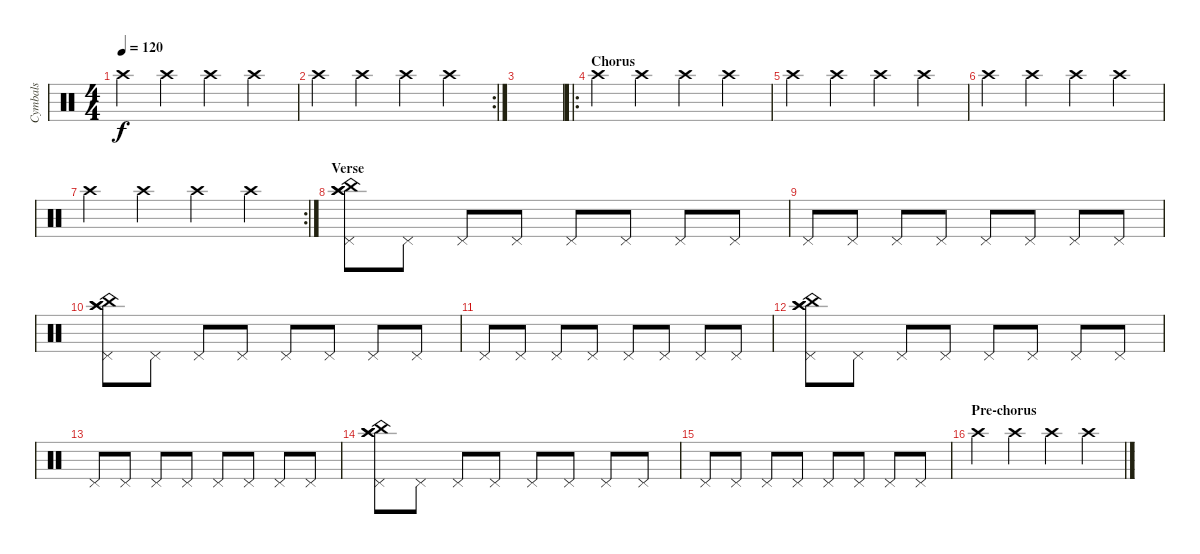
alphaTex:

\track ("Cymbals" "Cymbals") {instrument percussion}
\staff {score}
\articulation defaults
\ts (4 4)
\tempo 120
\clef neutral
\ks c "Crash high (hit)".4{dy f} "Crash high (hit)".4 "Crash high (hit)".4 "Crash high (hit)".4
|
\rc 2 "Crash high (hit)".4 "Crash high (hit)".4 "Crash high (hit)".4 "Crash high (hit)".4
|
|
\ro
\section ("" "Chorus")
"Crash high (hit)".4 "Crash high (hit)".4 "Crash high (hit)".4 "Crash high (hit)".4 |
"Crash high (hit)".4 "Crash high (hit)".4 "Crash high (hit)".4 "Crash high (hit)".4 |
"Crash high (hit)".4 "Crash high (hit)".4 "Crash high (hit)".4 "Crash high (hit)".4 |
\rc 2 "Crash high (hit)".4 "Crash high (hit)".4 "Crash high (hit)".4 "Crash high (hit)".4
|
\section ("" "Verse")
("Crash high (hit)" "Crash high (hit)" "Pedal Hi-Hat (hit)" "China (hit)").8 "Pedal Hi-Hat (hit)".8 "Pedal Hi-Hat (hit)".8 "Pedal Hi-Hat (hit)".8 "Pedal Hi-Hat (hit)".8 "Pedal Hi-Hat (hit)".8 "Pedal Hi-Hat (hit)".8 "Pedal Hi-Hat (hit)".8 |
"Pedal Hi-Hat (hit)".8 "Pedal Hi-Hat (hit)".8 "Pedal Hi-Hat (hit)".8 "Pedal Hi-Hat (hit)".8 "Pedal Hi-Hat (hit)".8 "Pedal Hi-Hat (hit)".8 "Pedal Hi-Hat (hit)".8 "Pedal Hi-Hat (hit)".8 |
("Crash high (hit)" "Crash high (hit)" "Pedal Hi-Hat (hit)" "China (hit)").8 "Pedal Hi-Hat (hit)".8 "Pedal Hi-Hat (hit)".8 "Pedal Hi-Hat (hit)".8 "Pedal Hi-Hat (hit)".8 "Pedal Hi-Hat (hit)".8 "Pedal Hi-Hat (hit)".8 "Pedal Hi-Hat (hit)".8 |
"Pedal Hi-Hat (hit)".8 "Pedal Hi-Hat (hit)".8 "Pedal Hi-Hat (hit)".8 "Pedal Hi-Hat (hit)".8 "Pedal Hi-Hat (hit)".8 "Pedal Hi-Hat (hit)".8 "Pedal Hi-Hat (hit)".8 "Pedal Hi-Hat (hit)".8 |
("Crash high (hit)" "Crash high (hit)" "Pedal Hi-Hat (hit)" "China (hit)").8 "Pedal Hi-Hat (hit)".8 "Pedal Hi-Hat (hit)".8 "Pedal Hi-Hat (hit)".8 "Pedal Hi-Hat (hit)".8 "Pedal Hi-Hat (hit)".8 "Pedal Hi-Hat (hit)".8 "Pedal Hi-Hat (hit)".8 |
"Pedal Hi-Hat (hit)".8 "Pedal Hi-Hat (hit)".8 "Pedal Hi-Hat (hit)".8 "Pedal Hi-Hat (hit)".8 "Pedal Hi-Hat (hit)".8 "Pedal Hi-Hat (hit)".8 "Pedal Hi-Hat (hit)".8 "Pedal Hi-Hat (hit)".8 |
("Crash high (hit)" "Crash high (hit)" "Pedal Hi-Hat (hit)" "China (hit)").8 "Pedal Hi-Hat (hit)".8 "Pedal Hi-Hat (hit)".8 "Pedal Hi-Hat (hit)".8 "Pedal Hi-Hat (hit)".8 "Pedal Hi-Hat (hit)".8 "Pedal Hi-Hat (hit)".8 "Pedal Hi-Hat (hit)".8 |
"Pedal Hi-Hat (hit)".8 "Pedal Hi-Hat (hit)".8 "Pedal Hi-Hat (hit)".8 "Pedal Hi-Hat (hit)".8 "Pedal Hi-Hat (hit)".8 "Pedal Hi-Hat (hit)".8 "Pedal Hi-Hat (hit)".8 "Pedal Hi-Hat (hit)".8 |
\section ("" "Pre-chorus")
"Crash high (hit)".4 "Crash high (hit)".4 "Crash high (hit)".4 "Crash high (hit)".4
